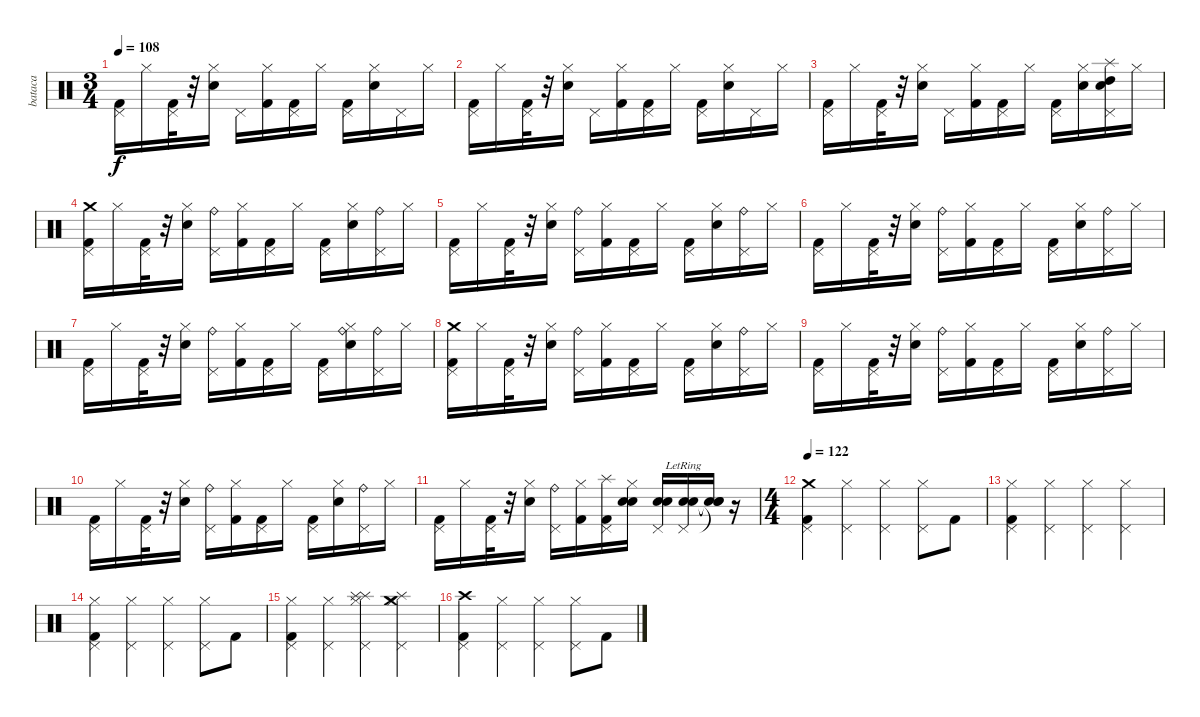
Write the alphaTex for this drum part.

\track ("bataca" "bataca") {instrument percussion}
\staff {score}
\articulation defaults
\ts (3 4)
\tempo 108
\clef neutral
\ks c
("Kick (hit) 2" "Pedal Hi-Hat (hit)").16{dy f} "Hi-Hat (closed)".16 ("Kick (hit) 2" "Pedal Hi-Hat (hit)").32 r.32 ("Electric Snare (hit)" "Hi-Hat (closed)").16 "Pedal Hi-Hat (hit)".16 ("Kick (hit) 2" "Hi-Hat (closed)").16 ("Kick (hit) 2" "Pedal Hi-Hat (hit)").16 "Hi-Hat (closed)".16 ("Kick (hit) 2" "Pedal Hi-Hat (hit)").16 ("Electric Snare (hit)" "Hi-Hat (closed)").16 "Pedal Hi-Hat (hit)".16 "Hi-Hat (closed)".16 |
("Kick (hit) 2" "Pedal Hi-Hat (hit)").16 "Hi-Hat (closed)".16 ("Kick (hit) 2" "Pedal Hi-Hat (hit)").32 r.32 ("Electric Snare (hit)" "Hi-Hat (closed)").16 "Pedal Hi-Hat (hit)".16 ("Kick (hit) 2" "Hi-Hat (closed)").16 ("Kick (hit) 2" "Pedal Hi-Hat (hit)").16 "Hi-Hat (closed)".16 ("Kick (hit) 2" "Pedal Hi-Hat (hit)").16 ("Electric Snare (hit)" "Hi-Hat (closed)").16 "Pedal Hi-Hat (hit)".16 "Hi-Hat (closed)".16 |
("Kick (hit) 2" "Pedal Hi-Hat (hit)").16 "Hi-Hat (closed)".16 ("Kick (hit) 2" "Pedal Hi-Hat (hit)").32 r.32 ("Electric Snare (hit)" "Hi-Hat (closed)").16 "Pedal Hi-Hat (hit)".16 ("Kick (hit) 2" "Hi-Hat (closed)").16 ("Kick (hit) 2" "Pedal Hi-Hat (hit)").16 "Hi-Hat (closed)".16 ("Kick (hit) 2" "Pedal Hi-Hat (hit)").16 ("Snare (hit) 2" "Hi-Hat (closed)").16 ("Electric Snare (hit)" "High Tom (hit)" "Pedal Hi-Hat (hit)" "Splash (hit)").16 "Hi-Hat (closed)".16 |
("Kick (hit) 2" "Pedal Hi-Hat (hit)" "Crash medium (hit)").16 "Hi-Hat (closed)".16 ("Kick (hit) 2" "Pedal Hi-Hat (hit)").32 r.32 ("Electric Snare (hit)" "Hi-Hat (closed)").16 ("Ride (bell)" "Pedal Hi-Hat (hit)").16 ("Kick (hit) 2" "Hi-Hat (closed)").16 ("Kick (hit) 2" "Pedal Hi-Hat (hit)").16 "Hi-Hat (closed)".16 ("Kick (hit) 2" "Pedal Hi-Hat (hit)").16 ("Electric Snare (hit)" "Hi-Hat (closed)").16 ("Ride (bell)" "Pedal Hi-Hat (hit)").16 "Hi-Hat (closed)".16 |
("Kick (hit) 2" "Pedal Hi-Hat (hit)").16 "Hi-Hat (closed)".16 ("Kick (hit) 2" "Pedal Hi-Hat (hit)").32 r.32 ("Electric Snare (hit)" "Hi-Hat (closed)").16 ("Ride (bell)" "Pedal Hi-Hat (hit)").16 ("Kick (hit) 2" "Hi-Hat (closed)").16 ("Kick (hit) 2" "Pedal Hi-Hat (hit)").16 "Hi-Hat (closed)".16 ("Kick (hit) 2" "Pedal Hi-Hat (hit)").16 ("Electric Snare (hit)" "Hi-Hat (closed)").16 ("Ride (bell)" "Pedal Hi-Hat (hit)").16 "Hi-Hat (closed)".16 |
("Kick (hit) 2" "Pedal Hi-Hat (hit)").16 "Hi-Hat (closed)".16 ("Kick (hit) 2" "Pedal Hi-Hat (hit)").32 r.32 ("Electric Snare (hit)" "Hi-Hat (closed)").16 ("Ride (bell)" "Pedal Hi-Hat (hit)").16 ("Kick (hit) 2" "Hi-Hat (closed)").16 ("Kick (hit) 2" "Pedal Hi-Hat (hit)").16 "Hi-Hat (closed)".16 ("Kick (hit) 2" "Pedal Hi-Hat (hit)").16 ("Electric Snare (hit)" "Hi-Hat (closed)").16 ("Ride (bell)" "Pedal Hi-Hat (hit)").16 "Hi-Hat (closed)".16 |
("Kick (hit) 2" "Pedal Hi-Hat (hit)").16 "Hi-Hat (closed)".16 ("Kick (hit) 2" "Pedal Hi-Hat (hit)").32 r.32 ("Electric Snare (hit)" "Hi-Hat (closed)").16 ("Ride (bell)" "Pedal Hi-Hat (hit)").16 ("Kick (hit) 2" "Hi-Hat (closed)").16 ("Kick (hit) 2" "Pedal Hi-Hat (hit)").16 "Hi-Hat (closed)".16 ("Kick (hit) 2" "Pedal Hi-Hat (hit)").16 ("Ride (bell)" "Electric Snare (hit)" "Hi-Hat (closed)").16 ("Ride (bell)" "Pedal Hi-Hat (hit)").16 "Hi-Hat (closed)".16 |
("Kick (hit) 2" "Pedal Hi-Hat (hit)" "Crash medium (hit)").16 "Hi-Hat (closed)".16 ("Kick (hit) 2" "Pedal Hi-Hat (hit)").32 r.32 ("Electric Snare (hit)" "Hi-Hat (closed)").16 ("Ride (bell)" "Pedal Hi-Hat (hit)").16 ("Kick (hit) 2" "Hi-Hat (closed)").16 ("Kick (hit) 2" "Pedal Hi-Hat (hit)").16 "Hi-Hat (closed)".16 ("Kick (hit) 2" "Pedal Hi-Hat (hit)").16 ("Electric Snare (hit)" "Hi-Hat (closed)").16 ("Ride (bell)" "Pedal Hi-Hat (hit)").16 "Hi-Hat (closed)".16 |
("Kick (hit) 2" "Pedal Hi-Hat (hit)").16 "Hi-Hat (closed)".16 ("Kick (hit) 2" "Pedal Hi-Hat (hit)").32 r.32 ("Electric Snare (hit)" "Hi-Hat (closed)").16 ("Ride (bell)" "Pedal Hi-Hat (hit)").16 ("Kick (hit) 2" "Hi-Hat (closed)").16 ("Kick (hit) 2" "Pedal Hi-Hat (hit)").16 "Hi-Hat (closed)".16 ("Kick (hit) 2" "Pedal Hi-Hat (hit)").16 ("Electric Snare (hit)" "Hi-Hat (closed)").16 ("Ride (bell)" "Pedal Hi-Hat (hit)").16 "Hi-Hat (closed)".16 |
("Kick (hit) 2" "Pedal Hi-Hat (hit)").16 "Hi-Hat (closed)".16 ("Kick (hit) 2" "Pedal Hi-Hat (hit)").32 r.32 ("Electric Snare (hit)" "Hi-Hat (closed)").16 ("Ride (bell)" "Pedal Hi-Hat (hit)").16 ("Kick (hit) 2" "Hi-Hat (closed)").16 ("Kick (hit) 2" "Pedal Hi-Hat (hit)").16 "Hi-Hat (closed)".16 ("Kick (hit) 2" "Pedal Hi-Hat (hit)").16 ("Electric Snare (hit)" "Hi-Hat (closed)").16 ("Ride (bell)" "Pedal Hi-Hat (hit)").16 "Hi-Hat (closed)".16 |
("Kick (hit) 2" "Pedal Hi-Hat (hit)").16 "Hi-Hat (closed)".16 ("Kick (hit) 2" "Pedal Hi-Hat (hit)").32 r.32 ("Electric Snare (hit)" "Hi-Hat (closed)").16 ("Ride (bell)" "Pedal Hi-Hat (hit)").16 ("Kick (hit) 2" "Hi-Hat (closed)").16 ("Kick (hit) 2" "Pedal Hi-Hat (hit)" "Splash (hit)").16 ("Electric Snare (hit)" "Snare (hit) 2" "Hi-Hat (closed)").16 ("Electric Snare (hit)" "Snare (hit) 2" "Pedal Hi-Hat (hit)").16 ("Electric Snare (hit)" "Snare (hit) 2" "Pedal Hi-Hat (hit)"{lr}).16 ("Snare (hit)"{t} "Snare (hit)"{t} "Snare (hit)"{t}).16 r.16 |
\ts (4 4)
\tempo 122
("Kick (hit) 2" "Pedal Hi-Hat (hit)" "Crash medium (hit)").4 ("Pedal Hi-Hat (hit)" "Hi-Hat (closed)").4 ("Pedal Hi-Hat (hit)" "Hi-Hat (closed)").4 ("Pedal Hi-Hat (hit)" "Hi-Hat (closed)").8 "Kick (hit) 2".8 |
("Kick (hit) 2" "Pedal Hi-Hat (hit)" "Hi-Hat (closed)").4 ("Pedal Hi-Hat (hit)" "Hi-Hat (closed)").4 ("Pedal Hi-Hat (hit)" "Hi-Hat (closed)").4 ("Pedal Hi-Hat (hit)" "Hi-Hat (closed)").4 |
("Kick (hit) 2" "Pedal Hi-Hat (hit)" "Hi-Hat (closed)").4 ("Pedal Hi-Hat (hit)" "Hi-Hat (closed)").4 ("Pedal Hi-Hat (hit)" "Hi-Hat (closed)").4 ("Pedal Hi-Hat (hit)" "Hi-Hat (closed)").8 "Kick (hit) 2".8 |
("Kick (hit) 2" "Pedal Hi-Hat (hit)" "Hi-Hat (closed)").4 ("Pedal Hi-Hat (hit)" "Hi-Hat (closed)").4 ("Splash (hit)" "Splash (hit)" "Pedal Hi-Hat (hit)" "Hi-Hat (closed)").4 ("Splash (hit)" "Crash medium (hit)" "Pedal Hi-Hat (hit)" "Hi-Hat (closed)").4 |
("Kick (hit) 2" "Pedal Hi-Hat (hit)" "Crash high (hit)").4 ("Pedal Hi-Hat (hit)" "Hi-Hat (closed)").4 ("Pedal Hi-Hat (hit)" "Hi-Hat (closed)").4 ("Pedal Hi-Hat (hit)" "Hi-Hat (closed)").8 "Kick (hit) 2".8
